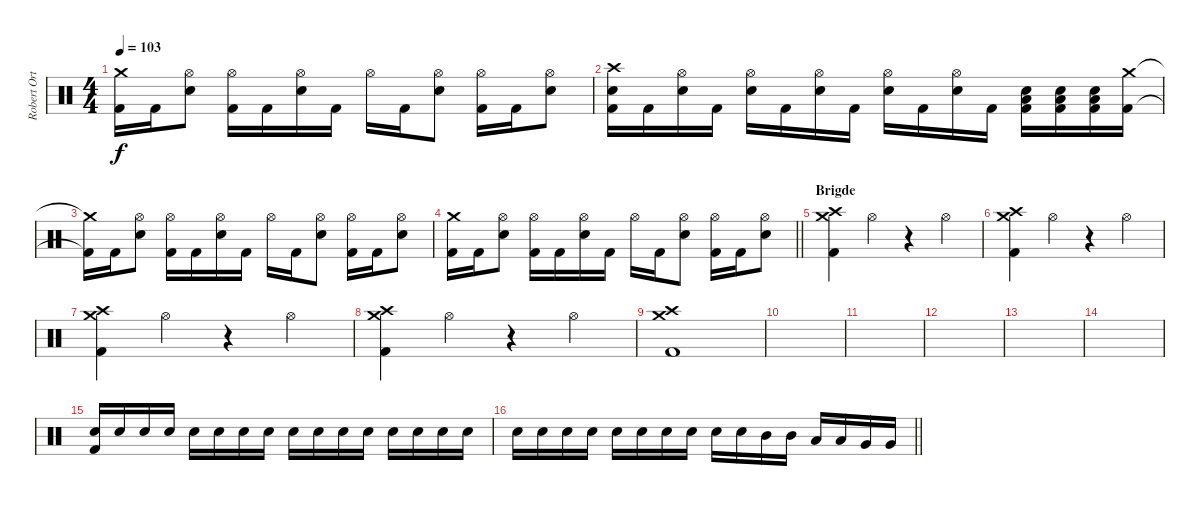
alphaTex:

\track ("Robert Ortiz - Drums" "Robert Ort") {instrument percussion}
\staff {score}
\articulation defaults
\ts (4 4)
\tempo 103
\clef neutral
\ks c
("Crash medium (hit)" "Kick (hit) 2").16{dy f} "Kick (hit) 2".16 ("Hi-Hat (open)" "Electric Snare (hit)").8 ("Hi-Hat (open)" "Kick (hit) 2").16 "Kick (hit) 2".16 ("Hi-Hat (open)" "Electric Snare (hit)").16 "Kick (hit) 2".16 "Hi-Hat (open)".16 "Kick (hit) 2".16 ("Hi-Hat (open)" "Electric Snare (hit)").8 ("Hi-Hat (open)" "Kick (hit) 2").16 "Kick (hit) 2".16 ("Hi-Hat (open)" "Electric Snare (hit)").8 |
("Crash high (hit)" "Electric Snare (hit)" "Kick (hit) 2").16 "Kick (hit) 2".16 ("Hi-Hat (open)" "Electric Snare (hit)").16 "Kick (hit) 2".16 ("Hi-Hat (open)" "Electric Snare (hit)").16 "Kick (hit) 2".16 ("Hi-Hat (open)" "Electric Snare (hit)").16 "Kick (hit) 2".16 ("Hi-Hat (open)" "Electric Snare (hit)").16 "Kick (hit) 2".16 ("Hi-Hat (open)" "Electric Snare (hit)").16 "Kick (hit) 2".16 ("Low Floor Tom (hit)" "Electric Snare (hit)" "Kick (hit) 2").16 ("Low Floor Tom (hit)" "Electric Snare (hit)" "Kick (hit) 2").16 ("Low Floor Tom (hit)" "Electric Snare (hit)" "Kick (hit) 2").16 ("Crash medium (hit)" "Kick (hit) 2").16 |
("Crash medium (hit)"{t} "Kick (hit) 2"{t}).16 "Kick (hit) 2".16 ("Hi-Hat (open)" "Electric Snare (hit)").8 ("Hi-Hat (open)" "Kick (hit) 2").16 "Kick (hit) 2".16 ("Hi-Hat (open)" "Electric Snare (hit)").16 "Kick (hit) 2".16 "Hi-Hat (open)".16 "Kick (hit) 2".16 ("Hi-Hat (open)" "Electric Snare (hit)").8 ("Hi-Hat (open)" "Kick (hit) 2").16 "Kick (hit) 2".16 ("Hi-Hat (open)" "Electric Snare (hit)").8 |
\barLineRight lightlight
("Crash medium (hit)" "Kick (hit) 2").16 "Kick (hit) 2".16 ("Hi-Hat (open)" "Electric Snare (hit)").8 ("Hi-Hat (open)" "Kick (hit) 2").16 "Kick (hit) 2".16 ("Hi-Hat (open)" "Electric Snare (hit)").16 "Kick (hit) 2".16 "Hi-Hat (open)".16 "Kick (hit) 2".16 ("Hi-Hat (open)" "Electric Snare (hit)").8 ("Hi-Hat (open)" "Kick (hit) 2").16 "Kick (hit) 2".16 ("Hi-Hat (open)" "Electric Snare (hit)").8 |
\section ("" "Brigde")
("Crash medium (hit)" "Crash high (hit)" "Kick (hit) 2").4 "Hi-Hat (open)".4 r.4 "Hi-Hat (open)".4 |
("Crash medium (hit)" "Crash high (hit)" "Kick (hit) 2").4 "Hi-Hat (open)".4 r.4 "Hi-Hat (open)".4 |
("Crash medium (hit)" "Crash high (hit)" "Kick (hit) 2").4 "Hi-Hat (open)".4 r.4 "Hi-Hat (open)".4 |
("Crash medium (hit)" "Crash high (hit)" "Kick (hit) 2").4 "Hi-Hat (open)".4 r.4 "Hi-Hat (open)".4 |
("Crash medium (hit)" "Crash high (hit)" "Kick (hit) 2").1 |
|
|
|
|
|
("Kick (hit) 2" "Electric Snare (hit)").16{volume 12} "Electric Snare (hit)".16 "Electric Snare (hit)".16 "Electric Snare (hit)".16 "Electric Snare (hit)".16 "Electric Snare (hit)".16 "Electric Snare (hit)".16 "Electric Snare (hit)".16 "Electric Snare (hit)".16 "Electric Snare (hit)".16 "Electric Snare (hit)".16 "Electric Snare (hit)".16 "Electric Snare (hit)".16 "Electric Snare (hit)".16 "Electric Snare (hit)".16 "Electric Snare (hit)".16 |
\barLineRight lightlight "Electric Snare (hit)".16 "Electric Snare (hit)".16 "Electric Snare (hit)".16 "Electric Snare (hit)".16 "Electric Snare (hit)".16 "Electric Snare (hit)".16 "Electric Snare (hit)".16 "Electric Snare (hit)".16 "Electric Snare (hit)".16 "Electric Snare (hit)".16 "Mid Tom (hit)".16 "Mid Tom (hit)".16 "Low Tom (hit)".16 "Low Tom (hit)".16 "Very Low Tom (hit)".16 "Very Low Tom (hit)".16
